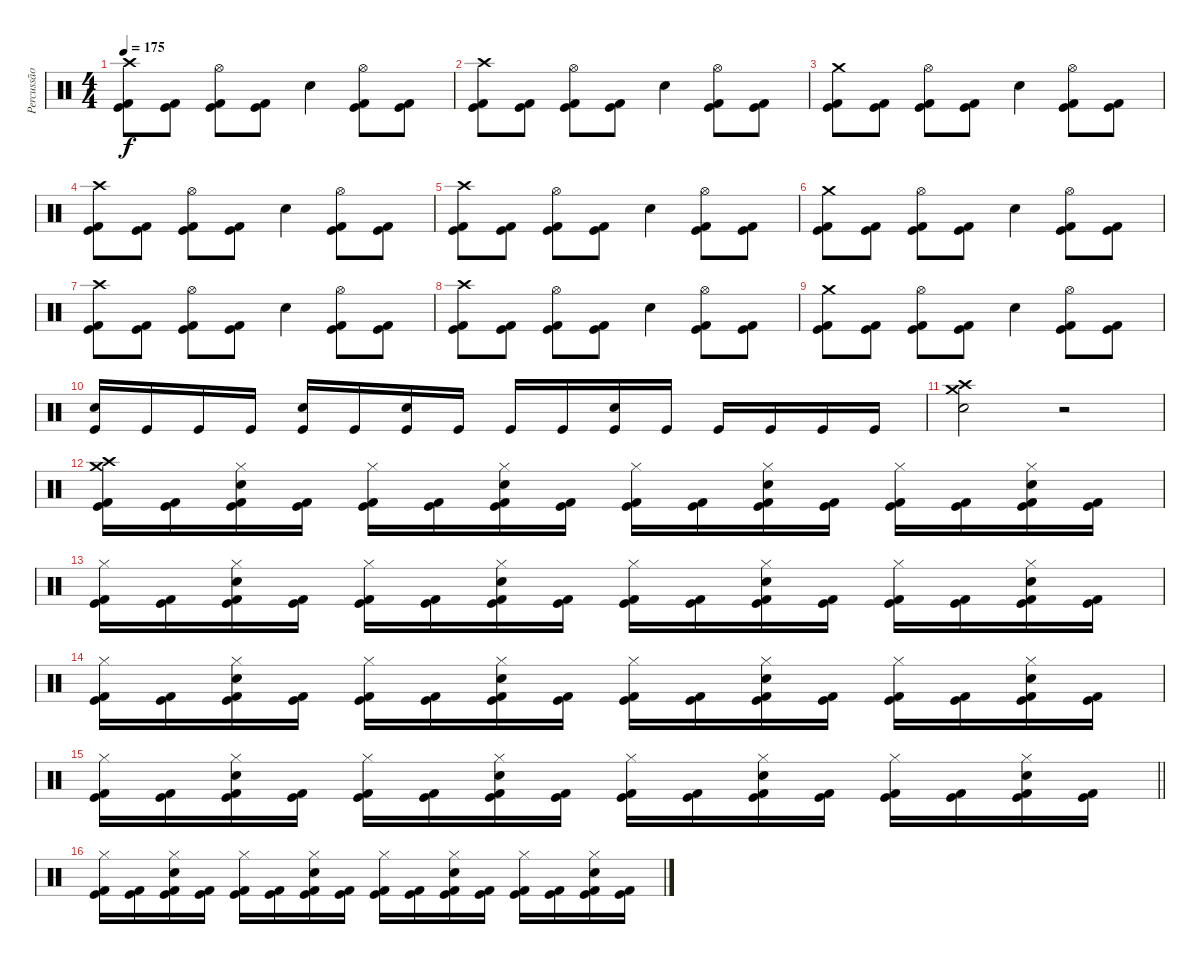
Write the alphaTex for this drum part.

\track ("Percussão" "Percussão") {instrument percussion}
\staff {score}
\articulation defaults
\ts (4 4)
\tempo 175
\clef neutral
\ks c
("Crash high (hit)" "Kick (hit) 2" "Kick (hit)").8{dy f} ("Kick (hit) 2" "Kick (hit)").8 ("Hi-Hat (open)" "Kick (hit) 2" "Kick (hit)").8 ("Kick (hit) 2" "Kick (hit)").8 "Electric Snare (hit)".4 ("Hi-Hat (open)" "Kick (hit) 2" "Kick (hit)").8 ("Kick (hit) 2" "Kick (hit)").8 |
("Crash high (hit)" "Kick (hit) 2" "Kick (hit)").8 ("Kick (hit) 2" "Kick (hit)").8 ("Hi-Hat (open)" "Kick (hit) 2" "Kick (hit)").8 ("Kick (hit) 2" "Kick (hit)").8 "Electric Snare (hit)".4 ("Hi-Hat (open)" "Kick (hit) 2" "Kick (hit)").8 ("Kick (hit) 2" "Kick (hit)").8 |
("Crash medium (hit)" "Kick (hit) 2" "Kick (hit)").8 ("Kick (hit) 2" "Kick (hit)").8 ("Hi-Hat (open)" "Kick (hit) 2" "Kick (hit)").8 ("Kick (hit) 2" "Kick (hit)").8 "Electric Snare (hit)".4 ("Hi-Hat (open)" "Kick (hit) 2" "Kick (hit)").8 ("Kick (hit) 2" "Kick (hit)").8 |
("Crash high (hit)" "Kick (hit) 2" "Kick (hit)").8 ("Kick (hit) 2" "Kick (hit)").8 ("Hi-Hat (open)" "Kick (hit) 2" "Kick (hit)").8 ("Kick (hit) 2" "Kick (hit)").8 "Electric Snare (hit)".4 ("Hi-Hat (open)" "Kick (hit) 2" "Kick (hit)").8 ("Kick (hit) 2" "Kick (hit)").8 |
("Crash high (hit)" "Kick (hit) 2" "Kick (hit)").8 ("Kick (hit) 2" "Kick (hit)").8 ("Hi-Hat (open)" "Kick (hit) 2" "Kick (hit)").8 ("Kick (hit) 2" "Kick (hit)").8 "Electric Snare (hit)".4 ("Hi-Hat (open)" "Kick (hit) 2" "Kick (hit)").8 ("Kick (hit) 2" "Kick (hit)").8 |
("Crash medium (hit)" "Kick (hit) 2" "Kick (hit)").8 ("Kick (hit) 2" "Kick (hit)").8 ("Hi-Hat (open)" "Kick (hit) 2" "Kick (hit)").8 ("Kick (hit) 2" "Kick (hit)").8 "Electric Snare (hit)".4 ("Hi-Hat (open)" "Kick (hit) 2" "Kick (hit)").8 ("Kick (hit) 2" "Kick (hit)").8 |
("Crash high (hit)" "Kick (hit) 2" "Kick (hit)").8 ("Kick (hit) 2" "Kick (hit)").8 ("Hi-Hat (open)" "Kick (hit) 2" "Kick (hit)").8 ("Kick (hit) 2" "Kick (hit)").8 "Electric Snare (hit)".4 ("Hi-Hat (open)" "Kick (hit) 2" "Kick (hit)").8 ("Kick (hit) 2" "Kick (hit)").8 |
("Crash high (hit)" "Kick (hit) 2" "Kick (hit)").8 ("Kick (hit) 2" "Kick (hit)").8 ("Hi-Hat (open)" "Kick (hit) 2" "Kick (hit)").8 ("Kick (hit) 2" "Kick (hit)").8 "Electric Snare (hit)".4 ("Hi-Hat (open)" "Kick (hit) 2" "Kick (hit)").8 ("Kick (hit) 2" "Kick (hit)").8 |
("Crash medium (hit)" "Kick (hit) 2" "Kick (hit)").8 ("Kick (hit) 2" "Kick (hit)").8 ("Hi-Hat (open)" "Kick (hit) 2" "Kick (hit)").8 ("Kick (hit) 2" "Kick (hit)").8 "Electric Snare (hit)".4 ("Hi-Hat (open)" "Kick (hit) 2" "Kick (hit)").8 ("Kick (hit) 2" "Kick (hit)").8 |
("Electric Snare (hit)" "Kick (hit)").16 "Kick (hit)".16 "Kick (hit)".16 "Kick (hit)".16 ("Electric Snare (hit)" "Kick (hit)").16 "Kick (hit)".16 ("Electric Snare (hit)" "Kick (hit)").16 "Kick (hit)".16 "Kick (hit)".16 "Kick (hit)".16 ("Electric Snare (hit)" "Kick (hit)").16 "Kick (hit)".16 "Kick (hit)".16 "Kick (hit)".16 "Kick (hit)".16 "Kick (hit)".16 |
("Electric Snare (hit)" "Crash high (hit)" "Crash medium (hit)").2 r.2 |
("Crash high (hit)" "Crash medium (hit)" "Kick (hit)" "Kick (hit) 2").16 ("Kick (hit)" "Kick (hit) 2").16 ("Hi-Hat (closed)" "Electric Snare (hit)" "Kick (hit)" "Kick (hit) 2").16 ("Kick (hit)" "Kick (hit) 2").16 ("Hi-Hat (closed)" "Kick (hit)" "Kick (hit) 2").16 ("Kick (hit)" "Kick (hit) 2").16 ("Hi-Hat (closed)" "Electric Snare (hit)" "Kick (hit)" "Kick (hit) 2").16 ("Kick (hit)" "Kick (hit) 2").16 ("Hi-Hat (closed)" "Kick (hit)" "Kick (hit) 2").16 ("Kick (hit)" "Kick (hit) 2").16 ("Hi-Hat (closed)" "Electric Snare (hit)" "Kick (hit)" "Kick (hit) 2").16 ("Kick (hit)" "Kick (hit) 2").16 ("Hi-Hat (closed)" "Kick (hit)" "Kick (hit) 2").16 ("Kick (hit)" "Kick (hit) 2").16 ("Hi-Hat (closed)" "Electric Snare (hit)" "Kick (hit)" "Kick (hit) 2").16 ("Kick (hit)" "Kick (hit) 2").16 |
("Hi-Hat (closed)" "Kick (hit)" "Kick (hit) 2").16 ("Kick (hit)" "Kick (hit) 2").16 ("Hi-Hat (closed)" "Electric Snare (hit)" "Kick (hit)" "Kick (hit) 2").16 ("Kick (hit)" "Kick (hit) 2").16 ("Hi-Hat (closed)" "Kick (hit)" "Kick (hit) 2").16 ("Kick (hit)" "Kick (hit) 2").16 ("Hi-Hat (closed)" "Electric Snare (hit)" "Kick (hit)" "Kick (hit) 2").16 ("Kick (hit)" "Kick (hit) 2").16 ("Hi-Hat (closed)" "Kick (hit)" "Kick (hit) 2").16 ("Kick (hit)" "Kick (hit) 2").16 ("Hi-Hat (closed)" "Electric Snare (hit)" "Kick (hit)" "Kick (hit) 2").16 ("Kick (hit)" "Kick (hit) 2").16 ("Hi-Hat (closed)" "Kick (hit)" "Kick (hit) 2").16 ("Kick (hit)" "Kick (hit) 2").16 ("Hi-Hat (closed)" "Electric Snare (hit)" "Kick (hit)" "Kick (hit) 2").16 ("Kick (hit)" "Kick (hit) 2").16 |
("Hi-Hat (closed)" "Kick (hit)" "Kick (hit) 2").16 ("Kick (hit)" "Kick (hit) 2").16 ("Hi-Hat (closed)" "Electric Snare (hit)" "Kick (hit)" "Kick (hit) 2").16 ("Kick (hit)" "Kick (hit) 2").16 ("Hi-Hat (closed)" "Kick (hit)" "Kick (hit) 2").16 ("Kick (hit)" "Kick (hit) 2").16 ("Hi-Hat (closed)" "Electric Snare (hit)" "Kick (hit)" "Kick (hit) 2").16 ("Kick (hit)" "Kick (hit) 2").16 ("Hi-Hat (closed)" "Kick (hit)" "Kick (hit) 2").16 ("Kick (hit)" "Kick (hit) 2").16 ("Hi-Hat (closed)" "Electric Snare (hit)" "Kick (hit)" "Kick (hit) 2").16 ("Kick (hit)" "Kick (hit) 2").16 ("Hi-Hat (closed)" "Kick (hit)" "Kick (hit) 2").16 ("Kick (hit)" "Kick (hit) 2").16 ("Hi-Hat (closed)" "Electric Snare (hit)" "Kick (hit)" "Kick (hit) 2").16 ("Kick (hit)" "Kick (hit) 2").16 |
\barLineRight lightlight
("Hi-Hat (closed)" "Kick (hit)" "Kick (hit) 2").16 ("Kick (hit)" "Kick (hit) 2").16 ("Hi-Hat (closed)" "Electric Snare (hit)" "Kick (hit)" "Kick (hit) 2").16 ("Kick (hit)" "Kick (hit) 2").16 ("Hi-Hat (closed)" "Kick (hit)" "Kick (hit) 2").16 ("Kick (hit)" "Kick (hit) 2").16 ("Hi-Hat (closed)" "Electric Snare (hit)" "Kick (hit)" "Kick (hit) 2").16 ("Kick (hit)" "Kick (hit) 2").16 ("Hi-Hat (closed)" "Kick (hit)" "Kick (hit) 2").16 ("Kick (hit)" "Kick (hit) 2").16 ("Hi-Hat (closed)" "Electric Snare (hit)" "Kick (hit)" "Kick (hit) 2").16 ("Kick (hit)" "Kick (hit) 2").16 ("Hi-Hat (closed)" "Kick (hit)" "Kick (hit) 2").16 ("Kick (hit)" "Kick (hit) 2").16 ("Hi-Hat (closed)" "Electric Snare (hit)" "Kick (hit)" "Kick (hit) 2").16 ("Kick (hit)" "Kick (hit) 2").16 |
("Hi-Hat (closed)" "Kick (hit)" "Kick (hit) 2").16 ("Kick (hit)" "Kick (hit) 2").16 ("Hi-Hat (closed)" "Electric Snare (hit)" "Kick (hit)" "Kick (hit) 2").16 ("Kick (hit)" "Kick (hit) 2").16 ("Hi-Hat (closed)" "Kick (hit)" "Kick (hit) 2").16 ("Kick (hit)" "Kick (hit) 2").16 ("Hi-Hat (closed)" "Electric Snare (hit)" "Kick (hit)" "Kick (hit) 2").16 ("Kick (hit)" "Kick (hit) 2").16 ("Hi-Hat (closed)" "Kick (hit)" "Kick (hit) 2").16 ("Kick (hit)" "Kick (hit) 2").16 ("Hi-Hat (closed)" "Electric Snare (hit)" "Kick (hit)" "Kick (hit) 2").16 ("Kick (hit)" "Kick (hit) 2").16 ("Hi-Hat (closed)" "Kick (hit)" "Kick (hit) 2").16 ("Kick (hit)" "Kick (hit) 2").16 ("Hi-Hat (closed)" "Electric Snare (hit)" "Kick (hit)" "Kick (hit) 2").16 ("Kick (hit)" "Kick (hit) 2").16
